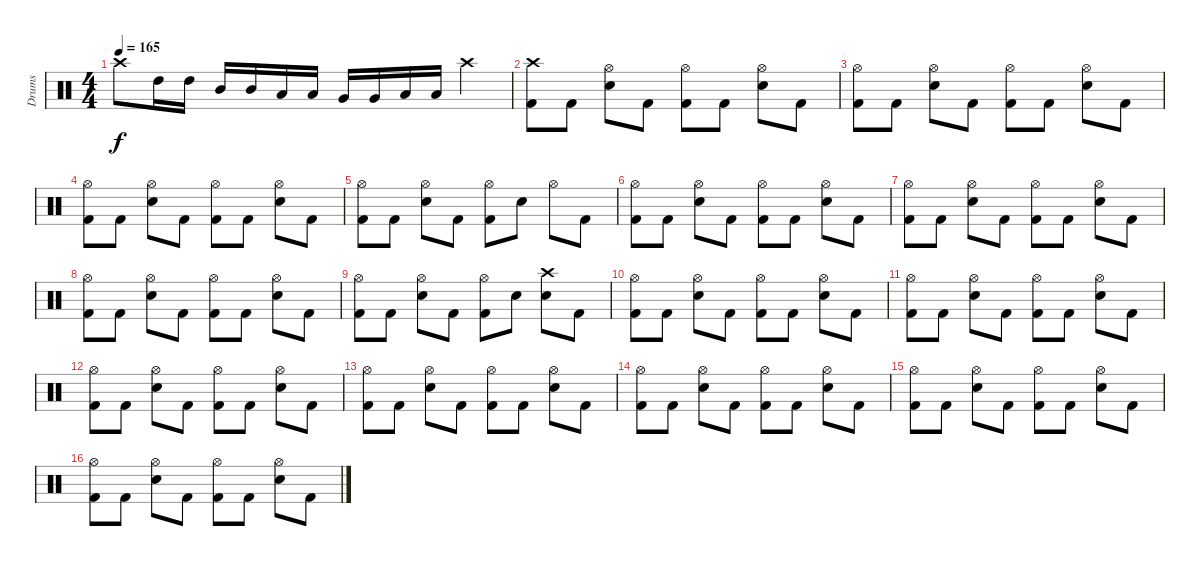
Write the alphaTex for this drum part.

\track ("Drums" "Drums") {instrument percussion}
\staff {score}
\articulation defaults
\ts (4 4)
\tempo 165
\clef neutral
\ks c "Crash high (hit)".8{dy f} "High Tom (hit)".16 "High Tom (hit)".16 "Mid Tom (hit)".16 "Mid Tom (hit)".16 "Low Tom (hit)".16 "Low Tom (hit)".16 "Very Low Tom (hit)".16 "Very Low Tom (hit)".16 "Low Floor Tom (hit)".16 "Low Floor Tom (hit)".16 "Crash high (hit)".4
|
("Crash high (hit)" "Kick (hit) 2").8 "Kick (hit) 2".8 ("Hi-Hat (open)" "Snare (hit) 2").8 "Kick (hit) 2".8 ("Hi-Hat (open)" "Kick (hit) 2").8 "Kick (hit) 2".8 ("Hi-Hat (open)" "Snare (hit) 2").8 "Kick (hit) 2".8 |
("Hi-Hat (open)" "Kick (hit) 2").8 "Kick (hit) 2".8 ("Hi-Hat (open)" "Snare (hit) 2").8 "Kick (hit) 2".8 ("Hi-Hat (open)" "Kick (hit) 2").8 "Kick (hit) 2".8 ("Hi-Hat (open)" "Snare (hit) 2").8 "Kick (hit) 2".8 |
("Hi-Hat (open)" "Kick (hit) 2").8 "Kick (hit) 2".8 ("Hi-Hat (open)" "Snare (hit) 2").8 "Kick (hit) 2".8 ("Hi-Hat (open)" "Kick (hit) 2").8 "Kick (hit) 2".8 ("Hi-Hat (open)" "Snare (hit) 2").8 "Kick (hit) 2".8 |
("Hi-Hat (open)" "Kick (hit) 2").8 "Kick (hit) 2".8 ("Hi-Hat (open)" "Snare (hit) 2").8 "Kick (hit) 2".8 ("Hi-Hat (open)" "Kick (hit) 2").8 "Snare (hit) 2".8 "Hi-Hat (open)".8 "Kick (hit) 2".8 |
("Hi-Hat (open)" "Kick (hit) 2").8 "Kick (hit) 2".8 ("Hi-Hat (open)" "Snare (hit) 2").8 "Kick (hit) 2".8 ("Hi-Hat (open)" "Kick (hit) 2").8 "Kick (hit) 2".8 ("Hi-Hat (open)" "Snare (hit) 2").8 "Kick (hit) 2".8 |
("Hi-Hat (open)" "Kick (hit) 2").8 "Kick (hit) 2".8 ("Hi-Hat (open)" "Snare (hit) 2").8 "Kick (hit) 2".8 ("Hi-Hat (open)" "Kick (hit) 2").8 "Kick (hit) 2".8 ("Hi-Hat (open)" "Snare (hit) 2").8 "Kick (hit) 2".8 |
("Hi-Hat (open)" "Kick (hit) 2").8 "Kick (hit) 2".8 ("Hi-Hat (open)" "Snare (hit) 2").8 "Kick (hit) 2".8 ("Hi-Hat (open)" "Kick (hit) 2").8 "Kick (hit) 2".8 ("Hi-Hat (open)" "Snare (hit) 2").8 "Kick (hit) 2".8 |
("Hi-Hat (open)" "Kick (hit) 2").8 "Kick (hit) 2".8 ("Hi-Hat (open)" "Snare (hit) 2").8 "Kick (hit) 2".8 ("Hi-Hat (open)" "Kick (hit) 2").8 "Snare (hit) 2".8 ("Crash high (hit)" "Snare (hit) 2").8 "Kick (hit) 2".8 |
("Hi-Hat (open)" "Kick (hit) 2").8 "Kick (hit) 2".8 ("Hi-Hat (open)" "Snare (hit) 2").8 "Kick (hit) 2".8 ("Hi-Hat (open)" "Kick (hit) 2").8 "Kick (hit) 2".8 ("Hi-Hat (open)" "Snare (hit) 2").8 "Kick (hit) 2".8 |
("Hi-Hat (open)" "Kick (hit) 2").8 "Kick (hit) 2".8 ("Hi-Hat (open)" "Snare (hit) 2").8 "Kick (hit) 2".8 ("Hi-Hat (open)" "Kick (hit) 2").8 "Kick (hit) 2".8 ("Hi-Hat (open)" "Snare (hit) 2").8 "Kick (hit) 2".8 |
("Hi-Hat (open)" "Kick (hit) 2").8 "Kick (hit) 2".8 ("Hi-Hat (open)" "Snare (hit) 2").8 "Kick (hit) 2".8 ("Hi-Hat (open)" "Kick (hit) 2").8 "Kick (hit) 2".8 ("Hi-Hat (open)" "Snare (hit) 2").8 "Kick (hit) 2".8 |
("Hi-Hat (open)" "Kick (hit) 2").8 "Kick (hit) 2".8 ("Hi-Hat (open)" "Snare (hit) 2").8 "Kick (hit) 2".8 ("Hi-Hat (open)" "Kick (hit) 2").8 "Kick (hit) 2".8 ("Hi-Hat (open)" "Snare (hit) 2").8 "Kick (hit) 2".8 |
("Hi-Hat (open)" "Kick (hit) 2").8 "Kick (hit) 2".8 ("Hi-Hat (open)" "Snare (hit) 2").8 "Kick (hit) 2".8 ("Hi-Hat (open)" "Kick (hit) 2").8 "Kick (hit) 2".8 ("Hi-Hat (open)" "Snare (hit) 2").8 "Kick (hit) 2".8 |
("Hi-Hat (open)" "Kick (hit) 2").8 "Kick (hit) 2".8 ("Hi-Hat (open)" "Snare (hit) 2").8 "Kick (hit) 2".8 ("Hi-Hat (open)" "Kick (hit) 2").8 "Kick (hit) 2".8 ("Hi-Hat (open)" "Snare (hit) 2").8 "Kick (hit) 2".8 |
("Hi-Hat (open)" "Kick (hit) 2").8 "Kick (hit) 2".8 ("Hi-Hat (open)" "Snare (hit) 2").8 "Kick (hit) 2".8 ("Hi-Hat (open)" "Kick (hit) 2").8 "Kick (hit) 2".8 ("Hi-Hat (open)" "Snare (hit) 2").8 "Kick (hit) 2".8
